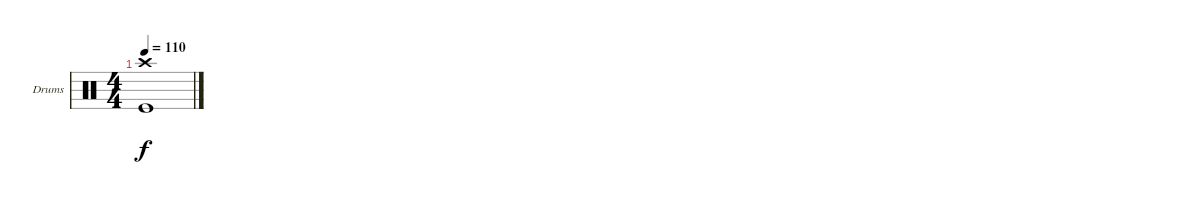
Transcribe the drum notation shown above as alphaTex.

\defaultSystemsLayout 4
\bracketExtendMode groupsimilarinstruments
\firstSystemTrackNameOrientation horizontal
\otherSystemsTrackNameOrientation horizontal
\track ("Drumkit" "Drums") {instrument percussion}
\staff {score}
\articulation defaults
\ts (4 4)
\tempo 110
\clef neutral
\ks c
("Crash high (hit)" "Kick (hit)").1{dy f}
